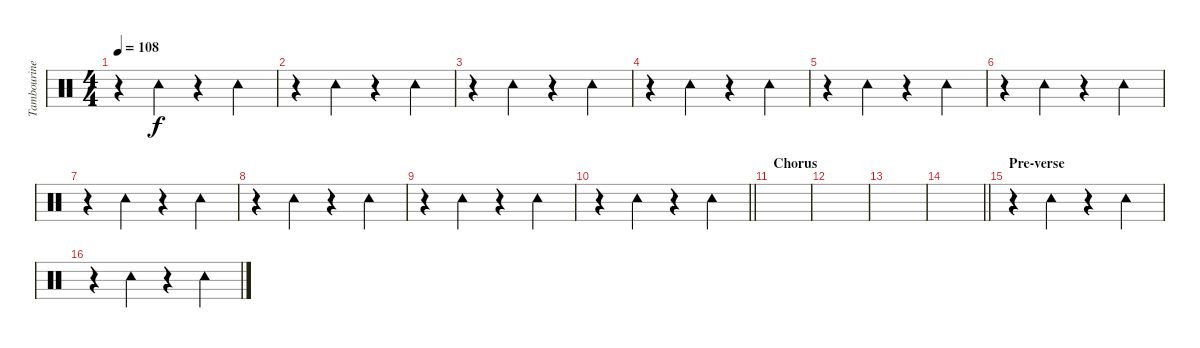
\track ("Tambourine" "Tambourine") {instrument percussion}
\staff {score}
\articulation defaults
\ts (4 4)
\tempo 108
\clef neutral
\ks c
r.4{dy f} "Tambourine (hit)".4 r.4 "Tambourine (hit)".4 |
r.4 "Tambourine (hit)".4 r.4 "Tambourine (hit)".4 |
r.4 "Tambourine (hit)".4 r.4 "Tambourine (hit)".4 |
r.4 "Tambourine (hit)".4 r.4 "Tambourine (hit)".4 |
r.4 "Tambourine (hit)".4 r.4 "Tambourine (hit)".4 |
r.4 "Tambourine (hit)".4 r.4 "Tambourine (hit)".4 |
r.4 "Tambourine (hit)".4 r.4 "Tambourine (hit)".4 |
r.4 "Tambourine (hit)".4 r.4 "Tambourine (hit)".4 |
r.4 "Tambourine (hit)".4 r.4 "Tambourine (hit)".4 |
\barLineRight lightlight
r.4 "Tambourine (hit)".4 r.4 "Tambourine (hit)".4 |
\section ("" "Chorus")
|
|
|
\barLineRight lightlight
|
\section ("" "Pre-verse")
r.4 "Tambourine (hit)".4 r.4 "Tambourine (hit)".4 |
r.4 "Tambourine (hit)".4 r.4 "Tambourine (hit)".4
